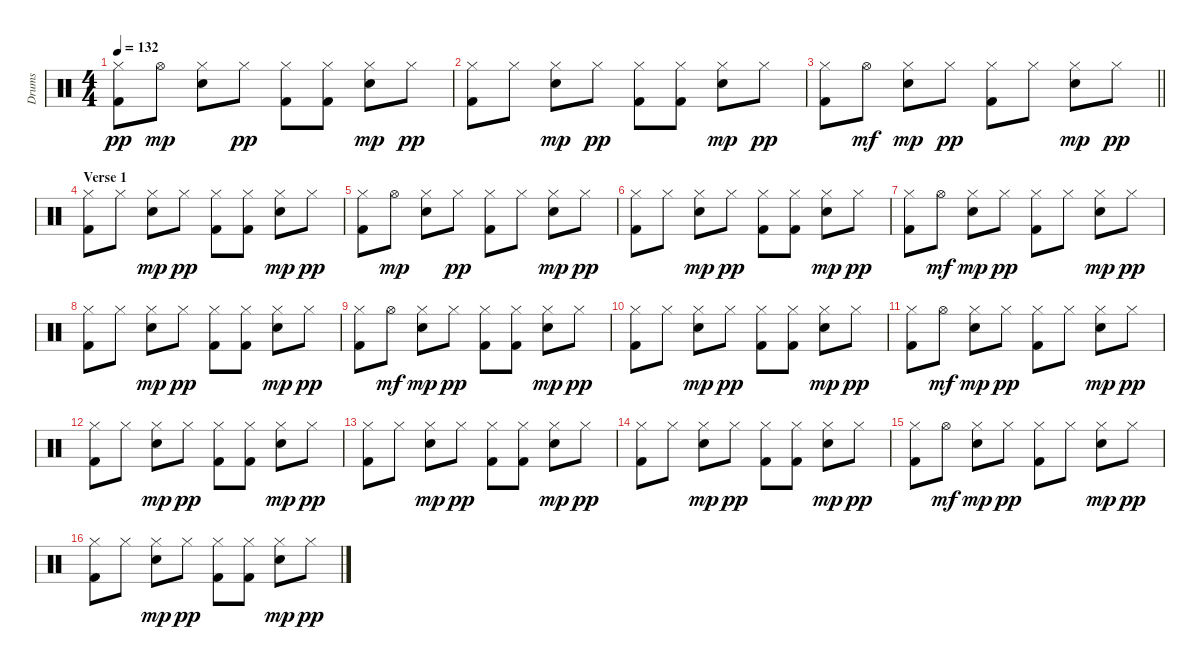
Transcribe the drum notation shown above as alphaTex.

\track ("Drums" "Drums") {instrument percussion}
\staff {score}
\articulation defaults
\ts (4 4)
\tempo 132
\clef neutral
\ks c
("Hi-Hat (closed)" "Kick (hit) 2").8{dy pp} "Hi-Hat (open)".8{dy mp} ("Hi-Hat (closed)" "Snare (hit) 2").8 "Hi-Hat (closed)".8{dy pp} ("Hi-Hat (closed)" "Kick (hit) 2").8 ("Hi-Hat (closed)" "Kick (hit) 2").8 ("Hi-Hat (closed)" "Snare (hit) 2").8{dy mp} "Hi-Hat (closed)".8{dy pp} |
("Hi-Hat (closed)" "Kick (hit) 2").8 "Hi-Hat (closed)".8 ("Hi-Hat (closed)" "Snare (hit) 2").8{dy mp} "Hi-Hat (closed)".8{dy pp} ("Hi-Hat (closed)" "Kick (hit) 2").8 ("Hi-Hat (closed)" "Kick (hit) 2").8 ("Hi-Hat (closed)" "Snare (hit) 2").8{dy mp} "Hi-Hat (closed)".8{dy pp} |
\barLineRight lightlight
("Hi-Hat (closed)" "Kick (hit) 2").8 "Hi-Hat (open)".8{dy mf} ("Hi-Hat (closed)" "Snare (hit) 2").8{dy mp} "Hi-Hat (closed)".8{dy pp} ("Hi-Hat (closed)" "Kick (hit) 2").8 "Hi-Hat (closed)".8 ("Hi-Hat (closed)" "Snare (hit) 2").8{dy mp} "Hi-Hat (closed)".8{dy pp} |
\section ("" "Verse 1")
("Hi-Hat (closed)" "Kick (hit) 2").8 "Hi-Hat (closed)".8 ("Hi-Hat (closed)" "Snare (hit) 2").8{dy mp} "Hi-Hat (closed)".8{dy pp} ("Hi-Hat (closed)" "Kick (hit) 2").8 ("Hi-Hat (closed)" "Kick (hit) 2").8 ("Hi-Hat (closed)" "Snare (hit) 2").8{dy mp} "Hi-Hat (closed)".8{dy pp} |
("Hi-Hat (closed)" "Kick (hit) 2").8 "Hi-Hat (open)".8{dy mp} ("Hi-Hat (closed)" "Snare (hit) 2").8 "Hi-Hat (closed)".8{dy pp} ("Hi-Hat (closed)" "Kick (hit) 2").8 "Hi-Hat (closed)".8 ("Hi-Hat (closed)" "Snare (hit) 2").8{dy mp} "Hi-Hat (closed)".8{dy pp} |
("Hi-Hat (closed)" "Kick (hit) 2").8 "Hi-Hat (closed)".8 ("Hi-Hat (closed)" "Snare (hit) 2").8{dy mp} "Hi-Hat (closed)".8{dy pp} ("Hi-Hat (closed)" "Kick (hit) 2").8 ("Hi-Hat (closed)" "Kick (hit) 2").8 ("Hi-Hat (closed)" "Snare (hit) 2").8{dy mp} "Hi-Hat (closed)".8{dy pp} |
("Hi-Hat (closed)" "Kick (hit) 2").8 "Hi-Hat (open)".8{dy mf} ("Hi-Hat (closed)" "Snare (hit) 2").8{dy mp} "Hi-Hat (closed)".8{dy pp} ("Hi-Hat (closed)" "Kick (hit) 2").8 "Hi-Hat (closed)".8 ("Hi-Hat (closed)" "Snare (hit) 2").8{dy mp} "Hi-Hat (closed)".8{dy pp} |
("Hi-Hat (closed)" "Kick (hit) 2").8 "Hi-Hat (closed)".8 ("Hi-Hat (closed)" "Snare (hit) 2").8{dy mp} "Hi-Hat (closed)".8{dy pp} ("Hi-Hat (closed)" "Kick (hit) 2").8 ("Hi-Hat (closed)" "Kick (hit) 2").8 ("Hi-Hat (closed)" "Snare (hit) 2").8{dy mp} "Hi-Hat (closed)".8{dy pp} |
("Hi-Hat (closed)" "Kick (hit) 2").8 "Hi-Hat (open)".8{dy mf} ("Hi-Hat (closed)" "Snare (hit) 2").8{dy mp} "Hi-Hat (closed)".8{dy pp} ("Hi-Hat (closed)" "Kick (hit) 2").8 ("Hi-Hat (closed)" "Kick (hit) 2").8 ("Hi-Hat (closed)" "Snare (hit) 2").8{dy mp} "Hi-Hat (closed)".8{dy pp} |
("Hi-Hat (closed)" "Kick (hit) 2").8 "Hi-Hat (closed)".8 ("Hi-Hat (closed)" "Snare (hit) 2").8{dy mp} "Hi-Hat (closed)".8{dy pp} ("Hi-Hat (closed)" "Kick (hit) 2").8 ("Hi-Hat (closed)" "Kick (hit) 2").8 ("Hi-Hat (closed)" "Snare (hit) 2").8{dy mp} "Hi-Hat (closed)".8{dy pp} |
("Hi-Hat (closed)" "Kick (hit) 2").8 "Hi-Hat (open)".8{dy mf} ("Hi-Hat (closed)" "Snare (hit) 2").8{dy mp} "Hi-Hat (closed)".8{dy pp} ("Hi-Hat (closed)" "Kick (hit) 2").8 "Hi-Hat (closed)".8 ("Hi-Hat (closed)" "Snare (hit) 2").8{dy mp} "Hi-Hat (closed)".8{dy pp} |
("Hi-Hat (closed)" "Kick (hit) 2").8 "Hi-Hat (closed)".8 ("Hi-Hat (closed)" "Snare (hit) 2").8{dy mp} "Hi-Hat (closed)".8{dy pp} ("Hi-Hat (closed)" "Kick (hit) 2").8 ("Hi-Hat (closed)" "Kick (hit) 2").8 ("Hi-Hat (closed)" "Snare (hit) 2").8{dy mp} "Hi-Hat (closed)".8{dy pp} |
("Hi-Hat (closed)" "Kick (hit) 2").8 "Hi-Hat (closed)".8 ("Hi-Hat (closed)" "Snare (hit) 2").8{dy mp} "Hi-Hat (closed)".8{dy pp} ("Hi-Hat (closed)" "Kick (hit) 2").8 ("Hi-Hat (closed)" "Kick (hit) 2").8 ("Hi-Hat (closed)" "Snare (hit) 2").8{dy mp} "Hi-Hat (closed)".8{dy pp} |
("Hi-Hat (closed)" "Kick (hit) 2").8 "Hi-Hat (closed)".8 ("Hi-Hat (closed)" "Snare (hit) 2").8{dy mp} "Hi-Hat (closed)".8{dy pp} ("Hi-Hat (closed)" "Kick (hit) 2").8 ("Hi-Hat (closed)" "Kick (hit) 2").8 ("Hi-Hat (closed)" "Snare (hit) 2").8{dy mp} "Hi-Hat (closed)".8{dy pp} |
("Hi-Hat (closed)" "Kick (hit) 2").8 "Hi-Hat (open)".8{dy mf} ("Hi-Hat (closed)" "Snare (hit) 2").8{dy mp} "Hi-Hat (closed)".8{dy pp} ("Hi-Hat (closed)" "Kick (hit) 2").8 "Hi-Hat (closed)".8 ("Hi-Hat (closed)" "Snare (hit) 2").8{dy mp} "Hi-Hat (closed)".8{dy pp} |
("Hi-Hat (closed)" "Kick (hit) 2").8 "Hi-Hat (closed)".8 ("Hi-Hat (closed)" "Snare (hit) 2").8{dy mp} "Hi-Hat (closed)".8{dy pp} ("Hi-Hat (closed)" "Kick (hit) 2").8 ("Hi-Hat (closed)" "Kick (hit) 2").8 ("Hi-Hat (closed)" "Snare (hit) 2").8{dy mp} "Hi-Hat (closed)".8{dy pp}
